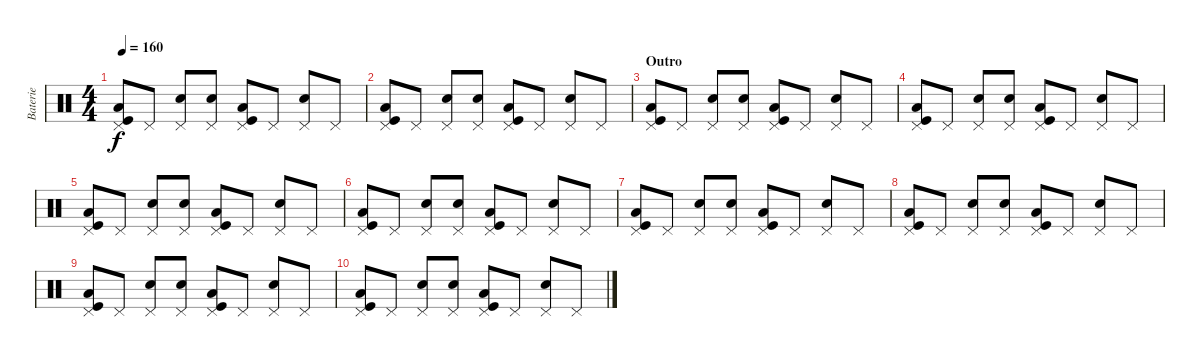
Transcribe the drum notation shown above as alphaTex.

\track ("Baterie" "Baterie") {instrument percussion}
\staff {score}
\articulation defaults
\ts (4 4)
\tempo 160
\clef neutral
\ks c
("Pedal Hi-Hat (hit)" "Low Floor Tom (hit)" "Kick (hit)").8{dy f} "Pedal Hi-Hat (hit)".8 ("Pedal Hi-Hat (hit)" "Electric Snare (hit)").8 ("Pedal Hi-Hat (hit)" "Electric Snare (hit)").8 ("Pedal Hi-Hat (hit)" "Low Floor Tom (hit)" "Kick (hit)").8 "Pedal Hi-Hat (hit)".8 ("Pedal Hi-Hat (hit)" "Electric Snare (hit)").8 "Pedal Hi-Hat (hit)".8 |
("Pedal Hi-Hat (hit)" "Low Floor Tom (hit)" "Kick (hit)").8 "Pedal Hi-Hat (hit)".8 ("Pedal Hi-Hat (hit)" "Electric Snare (hit)").8 ("Pedal Hi-Hat (hit)" "Electric Snare (hit)").8 ("Pedal Hi-Hat (hit)" "Low Floor Tom (hit)" "Kick (hit)").8 "Pedal Hi-Hat (hit)".8 ("Pedal Hi-Hat (hit)" "Electric Snare (hit)").8 "Pedal Hi-Hat (hit)".8 |
\section ("" "Outro")
("Pedal Hi-Hat (hit)" "Low Floor Tom (hit)" "Kick (hit)").8 "Pedal Hi-Hat (hit)".8 ("Pedal Hi-Hat (hit)" "Electric Snare (hit)").8 ("Pedal Hi-Hat (hit)" "Electric Snare (hit)").8 ("Pedal Hi-Hat (hit)" "Low Floor Tom (hit)" "Kick (hit)").8 "Pedal Hi-Hat (hit)".8 ("Pedal Hi-Hat (hit)" "Electric Snare (hit)").8 "Pedal Hi-Hat (hit)".8 |
("Pedal Hi-Hat (hit)" "Low Floor Tom (hit)" "Kick (hit)").8 "Pedal Hi-Hat (hit)".8 ("Pedal Hi-Hat (hit)" "Electric Snare (hit)").8 ("Pedal Hi-Hat (hit)" "Electric Snare (hit)").8 ("Pedal Hi-Hat (hit)" "Low Floor Tom (hit)" "Kick (hit)").8 "Pedal Hi-Hat (hit)".8 ("Pedal Hi-Hat (hit)" "Electric Snare (hit)").8 "Pedal Hi-Hat (hit)".8 |
("Pedal Hi-Hat (hit)" "Low Floor Tom (hit)" "Kick (hit)").8 "Pedal Hi-Hat (hit)".8 ("Pedal Hi-Hat (hit)" "Electric Snare (hit)").8 ("Pedal Hi-Hat (hit)" "Electric Snare (hit)").8 ("Pedal Hi-Hat (hit)" "Low Floor Tom (hit)" "Kick (hit)").8 "Pedal Hi-Hat (hit)".8 ("Pedal Hi-Hat (hit)" "Electric Snare (hit)").8 "Pedal Hi-Hat (hit)".8 |
("Pedal Hi-Hat (hit)" "Low Floor Tom (hit)" "Kick (hit)").8 "Pedal Hi-Hat (hit)".8 ("Pedal Hi-Hat (hit)" "Electric Snare (hit)").8 ("Pedal Hi-Hat (hit)" "Electric Snare (hit)").8 ("Pedal Hi-Hat (hit)" "Low Floor Tom (hit)" "Kick (hit)").8 "Pedal Hi-Hat (hit)".8 ("Pedal Hi-Hat (hit)" "Electric Snare (hit)").8 "Pedal Hi-Hat (hit)".8 |
("Pedal Hi-Hat (hit)" "Low Floor Tom (hit)" "Kick (hit)").8 "Pedal Hi-Hat (hit)".8 ("Pedal Hi-Hat (hit)" "Electric Snare (hit)").8 ("Pedal Hi-Hat (hit)" "Electric Snare (hit)").8 ("Pedal Hi-Hat (hit)" "Low Floor Tom (hit)" "Kick (hit)").8 "Pedal Hi-Hat (hit)".8 ("Pedal Hi-Hat (hit)" "Electric Snare (hit)").8 "Pedal Hi-Hat (hit)".8 |
("Pedal Hi-Hat (hit)" "Low Floor Tom (hit)" "Kick (hit)").8 "Pedal Hi-Hat (hit)".8 ("Pedal Hi-Hat (hit)" "Electric Snare (hit)").8 ("Pedal Hi-Hat (hit)" "Electric Snare (hit)").8 ("Pedal Hi-Hat (hit)" "Low Floor Tom (hit)" "Kick (hit)").8 "Pedal Hi-Hat (hit)".8 ("Pedal Hi-Hat (hit)" "Electric Snare (hit)").8 "Pedal Hi-Hat (hit)".8 |
("Pedal Hi-Hat (hit)" "Low Floor Tom (hit)" "Kick (hit)").8 "Pedal Hi-Hat (hit)".8 ("Pedal Hi-Hat (hit)" "Electric Snare (hit)").8 ("Pedal Hi-Hat (hit)" "Electric Snare (hit)").8 ("Pedal Hi-Hat (hit)" "Low Floor Tom (hit)" "Kick (hit)").8 "Pedal Hi-Hat (hit)".8 ("Pedal Hi-Hat (hit)" "Electric Snare (hit)").8 "Pedal Hi-Hat (hit)".8 |
("Pedal Hi-Hat (hit)" "Low Floor Tom (hit)" "Kick (hit)").8 "Pedal Hi-Hat (hit)".8 ("Pedal Hi-Hat (hit)" "Electric Snare (hit)").8 ("Pedal Hi-Hat (hit)" "Electric Snare (hit)").8 ("Pedal Hi-Hat (hit)" "Low Floor Tom (hit)" "Kick (hit)").8 "Pedal Hi-Hat (hit)".8 ("Pedal Hi-Hat (hit)" "Electric Snare (hit)").8 "Pedal Hi-Hat (hit)".8
